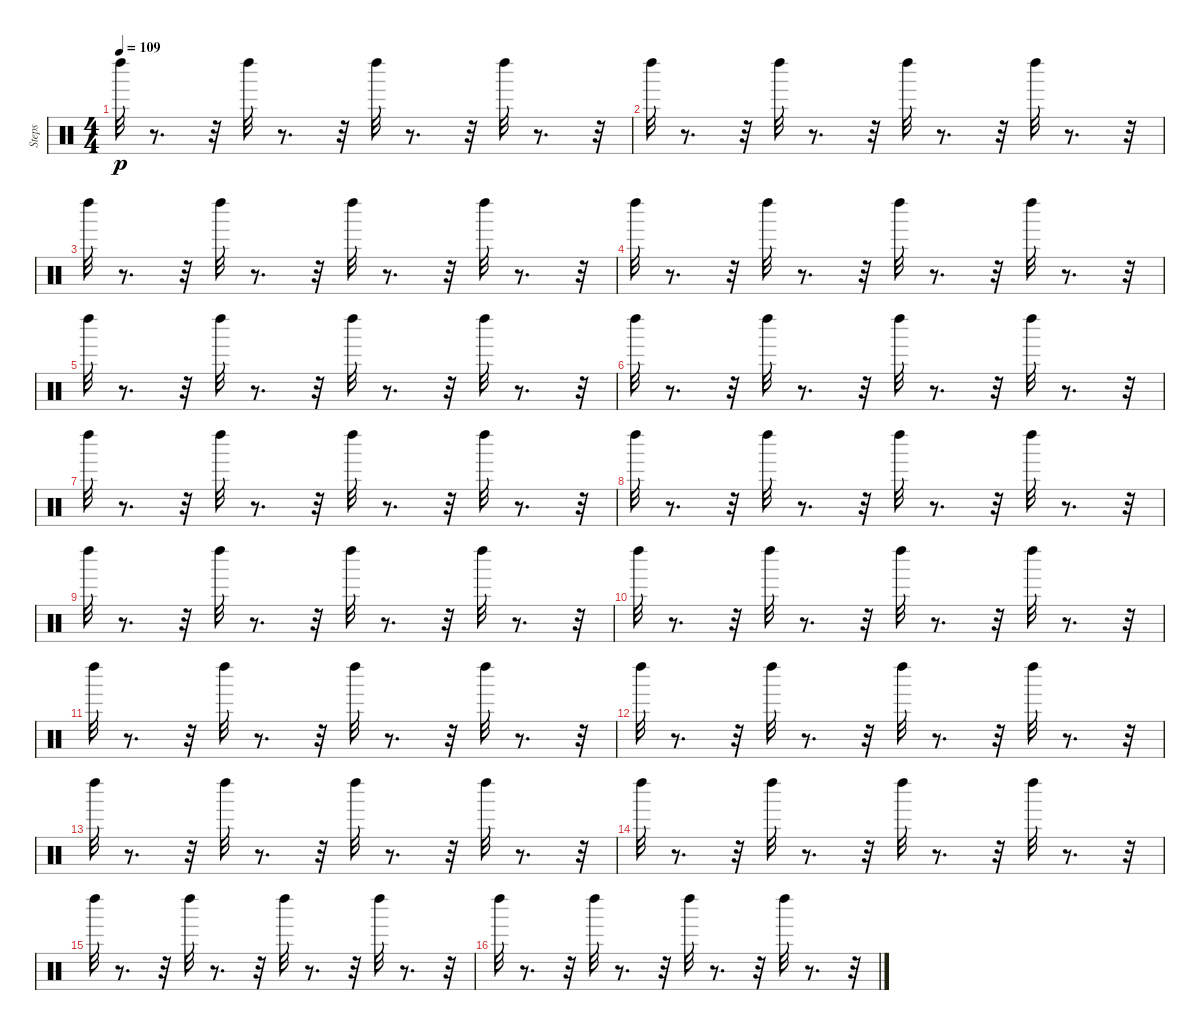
\track ("Steps" "Steps") {instrument percussion}
\staff {score}
\articulation defaults
\ts (4 4)
\tempo 109
\clef neutral
\ks c "Left Maraca (hit)".32{dy p}
r.8{d} r.32 "Left Maraca (hit)".32 r.8{d} r.32 "Left Maraca (hit)".32 r.8{d} r.32 "Left Maraca (hit)".32 r.8{d} r.32 |
"Left Maraca (hit)".32 r.8{d} r.32 "Left Maraca (hit)".32 r.8{d} r.32 "Left Maraca (hit)".32 r.8{d} r.32 "Left Maraca (hit)".32 r.8{d} r.32 |
"Left Maraca (hit)".32 r.8{d} r.32 "Left Maraca (hit)".32 r.8{d} r.32 "Left Maraca (hit)".32 r.8{d} r.32 "Left Maraca (hit)".32 r.8{d} r.32 |
"Left Maraca (hit)".32 r.8{d} r.32 "Left Maraca (hit)".32 r.8{d} r.32 "Left Maraca (hit)".32 r.8{d} r.32 "Left Maraca (hit)".32 r.8{d} r.32 |
"Left Maraca (hit)".32 r.8{d} r.32 "Left Maraca (hit)".32 r.8{d} r.32 "Left Maraca (hit)".32 r.8{d} r.32 "Left Maraca (hit)".32 r.8{d} r.32 |
"Left Maraca (hit)".32 r.8{d} r.32 "Left Maraca (hit)".32 r.8{d} r.32 "Left Maraca (hit)".32 r.8{d} r.32 "Left Maraca (hit)".32 r.8{d} r.32 |
"Left Maraca (hit)".32 r.8{d} r.32 "Left Maraca (hit)".32 r.8{d} r.32 "Left Maraca (hit)".32 r.8{d} r.32 "Left Maraca (hit)".32 r.8{d} r.32 |
"Left Maraca (hit)".32 r.8{d} r.32 "Left Maraca (hit)".32 r.8{d} r.32 "Left Maraca (hit)".32 r.8{d} r.32 "Left Maraca (hit)".32 r.8{d} r.32 |
"Left Maraca (hit)".32 r.8{d} r.32 "Left Maraca (hit)".32 r.8{d} r.32 "Left Maraca (hit)".32 r.8{d} r.32 "Left Maraca (hit)".32 r.8{d} r.32 |
"Left Maraca (hit)".32 r.8{d} r.32 "Left Maraca (hit)".32 r.8{d} r.32 "Left Maraca (hit)".32 r.8{d} r.32 "Left Maraca (hit)".32 r.8{d} r.32 |
"Left Maraca (hit)".32 r.8{d} r.32 "Left Maraca (hit)".32 r.8{d} r.32 "Left Maraca (hit)".32 r.8{d} r.32 "Left Maraca (hit)".32 r.8{d} r.32 |
"Left Maraca (hit)".32 r.8{d} r.32 "Left Maraca (hit)".32 r.8{d} r.32 "Left Maraca (hit)".32 r.8{d} r.32 "Left Maraca (hit)".32 r.8{d} r.32 |
"Left Maraca (hit)".32 r.8{d} r.32 "Left Maraca (hit)".32 r.8{d} r.32 "Left Maraca (hit)".32 r.8{d} r.32 "Left Maraca (hit)".32 r.8{d} r.32 |
"Left Maraca (hit)".32 r.8{d} r.32 "Left Maraca (hit)".32 r.8{d} r.32 "Left Maraca (hit)".32 r.8{d} r.32 "Left Maraca (hit)".32 r.8{d} r.32 |
"Left Maraca (hit)".32 r.8{d} r.32 "Left Maraca (hit)".32 r.8{d} r.32 "Left Maraca (hit)".32 r.8{d} r.32 "Left Maraca (hit)".32 r.8{d} r.32 |
"Left Maraca (hit)".32 r.8{d} r.32 "Left Maraca (hit)".32 r.8{d} r.32 "Left Maraca (hit)".32 r.8{d} r.32 "Left Maraca (hit)".32 r.8{d} r.32
